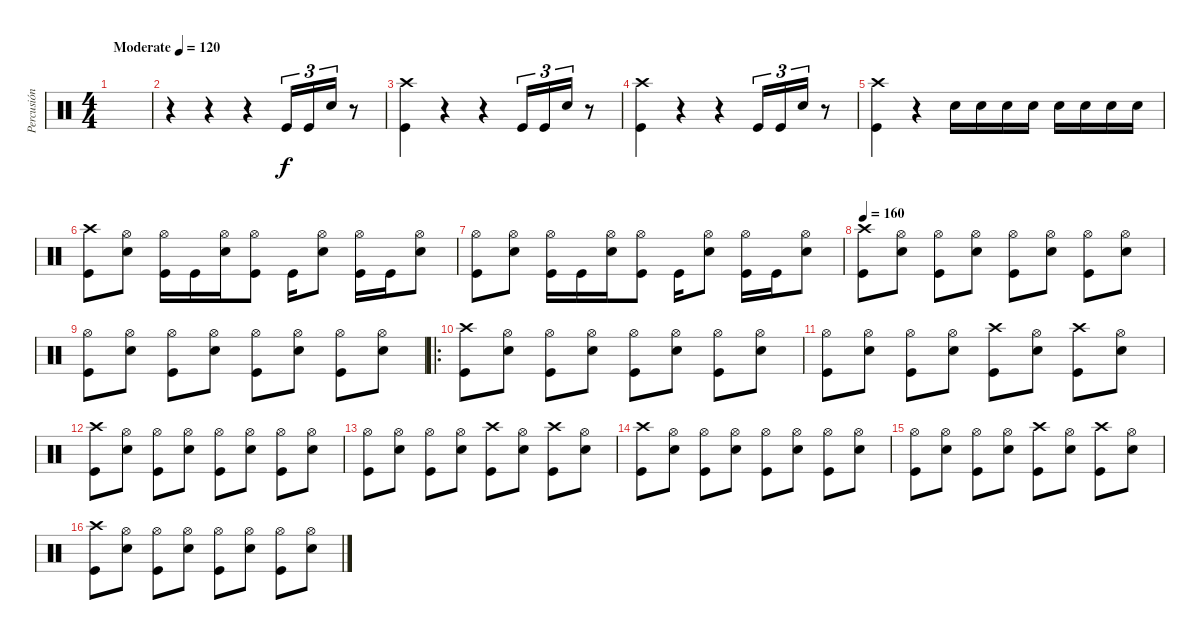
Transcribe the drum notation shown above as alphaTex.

\track ("Percusión" "Percusión") {instrument percussion}
\staff
\articulation defaults
\ts (4 4)
\tempo (120 "Moderate")
\clef neutral
\ks c
|
r.4 r.4 r.4 "Kick (hit)".16{tu (3 2)} "Kick (hit)".16{tu (3 2)} "Electric Snare (hit)".16{tu (3 2)} r.8 |
("Kick (hit)" "Crash high (hit)").4 r.4 r.4 "Kick (hit)".16{tu (3 2)} "Kick (hit)".16{tu (3 2)} "Electric Snare (hit)".16{tu (3 2)} r.8 |
("Kick (hit)" "Crash high (hit)").4 r.4 r.4 "Kick (hit)".16{tu (3 2)} "Kick (hit)".16{tu (3 2)} "Electric Snare (hit)".16{tu (3 2)} r.8 |
("Kick (hit)" "Crash high (hit)").4 r.4 "Electric Snare (hit)".16 "Electric Snare (hit)".16 "Electric Snare (hit)".16 "Electric Snare (hit)".16 "Electric Snare (hit)".16 "Electric Snare (hit)".16 "Electric Snare (hit)".16 "Electric Snare (hit)".16 |
("Kick (hit)" "Crash high (hit)").8 ("Hi-Hat (open)" "Electric Snare (hit)").8 ("Kick (hit)" "Hi-Hat (open)").16 "Kick (hit)".16 ("Hi-Hat (open)" "Electric Snare (hit)").16 ("Kick (hit)" "Hi-Hat (open)").8 "Kick (hit)".16 ("Hi-Hat (open)" "Electric Snare (hit)").8 ("Kick (hit)" "Hi-Hat (open)").16 "Kick (hit)".16 ("Hi-Hat (open)" "Electric Snare (hit)").8 |
("Kick (hit)" "Hi-Hat (open)").8 ("Hi-Hat (open)" "Electric Snare (hit)").8 ("Kick (hit)" "Hi-Hat (open)").16 "Kick (hit)".16 ("Hi-Hat (open)" "Electric Snare (hit)").16 ("Kick (hit)" "Hi-Hat (open)").8 "Kick (hit)".16 ("Hi-Hat (open)" "Electric Snare (hit)").8 ("Kick (hit)" "Hi-Hat (open)").16 "Kick (hit)".16 ("Hi-Hat (open)" "Electric Snare (hit)").8 |
\tempo 160
("Kick (hit)" "Crash high (hit)").8 ("Hi-Hat (open)" "Electric Snare (hit)").8 ("Kick (hit)" "Hi-Hat (open)").8 ("Hi-Hat (open)" "Electric Snare (hit)").8 ("Kick (hit)" "Hi-Hat (open)").8 ("Hi-Hat (open)" "Electric Snare (hit)").8 ("Kick (hit)" "Hi-Hat (open)").8 ("Hi-Hat (open)" "Electric Snare (hit)").8 |
("Kick (hit)" "Hi-Hat (open)").8 ("Hi-Hat (open)" "Electric Snare (hit)").8 ("Kick (hit)" "Hi-Hat (open)").8 ("Hi-Hat (open)" "Electric Snare (hit)").8 ("Kick (hit)" "Hi-Hat (open)").8 ("Hi-Hat (open)" "Electric Snare (hit)").8 ("Kick (hit)" "Hi-Hat (open)").8 ("Hi-Hat (open)" "Electric Snare (hit)").8 |
\ro
("Kick (hit)" "Crash high (hit)").8 ("Hi-Hat (open)" "Electric Snare (hit)").8 ("Kick (hit)" "Hi-Hat (open)").8 ("Hi-Hat (open)" "Electric Snare (hit)").8 ("Kick (hit)" "Hi-Hat (open)").8 ("Hi-Hat (open)" "Electric Snare (hit)").8 ("Kick (hit)" "Hi-Hat (open)").8 ("Hi-Hat (open)" "Electric Snare (hit)").8 |
("Kick (hit)" "Hi-Hat (open)").8 ("Hi-Hat (open)" "Electric Snare (hit)").8 ("Kick (hit)" "Hi-Hat (open)").8 ("Hi-Hat (open)" "Electric Snare (hit)").8 ("Kick (hit)" "Crash high (hit)").8 ("Hi-Hat (open)" "Electric Snare (hit)").8 ("Kick (hit)" "Crash high (hit)").8 ("Hi-Hat (open)" "Electric Snare (hit)").8 |
("Kick (hit)" "Crash high (hit)").8 ("Hi-Hat (open)" "Electric Snare (hit)").8 ("Kick (hit)" "Hi-Hat (open)").8 ("Hi-Hat (open)" "Electric Snare (hit)").8 ("Kick (hit)" "Hi-Hat (open)").8 ("Hi-Hat (open)" "Electric Snare (hit)").8 ("Kick (hit)" "Hi-Hat (open)").8 ("Hi-Hat (open)" "Electric Snare (hit)").8 |
("Kick (hit)" "Hi-Hat (open)").8 ("Hi-Hat (open)" "Electric Snare (hit)").8 ("Kick (hit)" "Hi-Hat (open)").8 ("Hi-Hat (open)" "Electric Snare (hit)").8 ("Kick (hit)" "Crash high (hit)").8 ("Hi-Hat (open)" "Electric Snare (hit)").8 ("Kick (hit)" "Crash high (hit)").8 ("Hi-Hat (open)" "Electric Snare (hit)").8 |
("Kick (hit)" "Crash high (hit)").8 ("Hi-Hat (open)" "Electric Snare (hit)").8 ("Kick (hit)" "Hi-Hat (open)").8 ("Hi-Hat (open)" "Electric Snare (hit)").8 ("Kick (hit)" "Hi-Hat (open)").8 ("Hi-Hat (open)" "Electric Snare (hit)").8 ("Kick (hit)" "Hi-Hat (open)").8 ("Hi-Hat (open)" "Electric Snare (hit)").8 |
("Kick (hit)" "Hi-Hat (open)").8 ("Hi-Hat (open)" "Electric Snare (hit)").8 ("Kick (hit)" "Hi-Hat (open)").8 ("Hi-Hat (open)" "Electric Snare (hit)").8 ("Kick (hit)" "Crash high (hit)").8 ("Hi-Hat (open)" "Electric Snare (hit)").8 ("Kick (hit)" "Crash high (hit)").8 ("Hi-Hat (open)" "Electric Snare (hit)").8 |
("Kick (hit)" "Crash high (hit)").8 ("Hi-Hat (open)" "Electric Snare (hit)").8 ("Kick (hit)" "Hi-Hat (open)").8 ("Hi-Hat (open)" "Electric Snare (hit)").8 ("Kick (hit)" "Hi-Hat (open)").8 ("Hi-Hat (open)" "Electric Snare (hit)").8 ("Kick (hit)" "Hi-Hat (open)").8 ("Hi-Hat (open)" "Electric Snare (hit)").8
